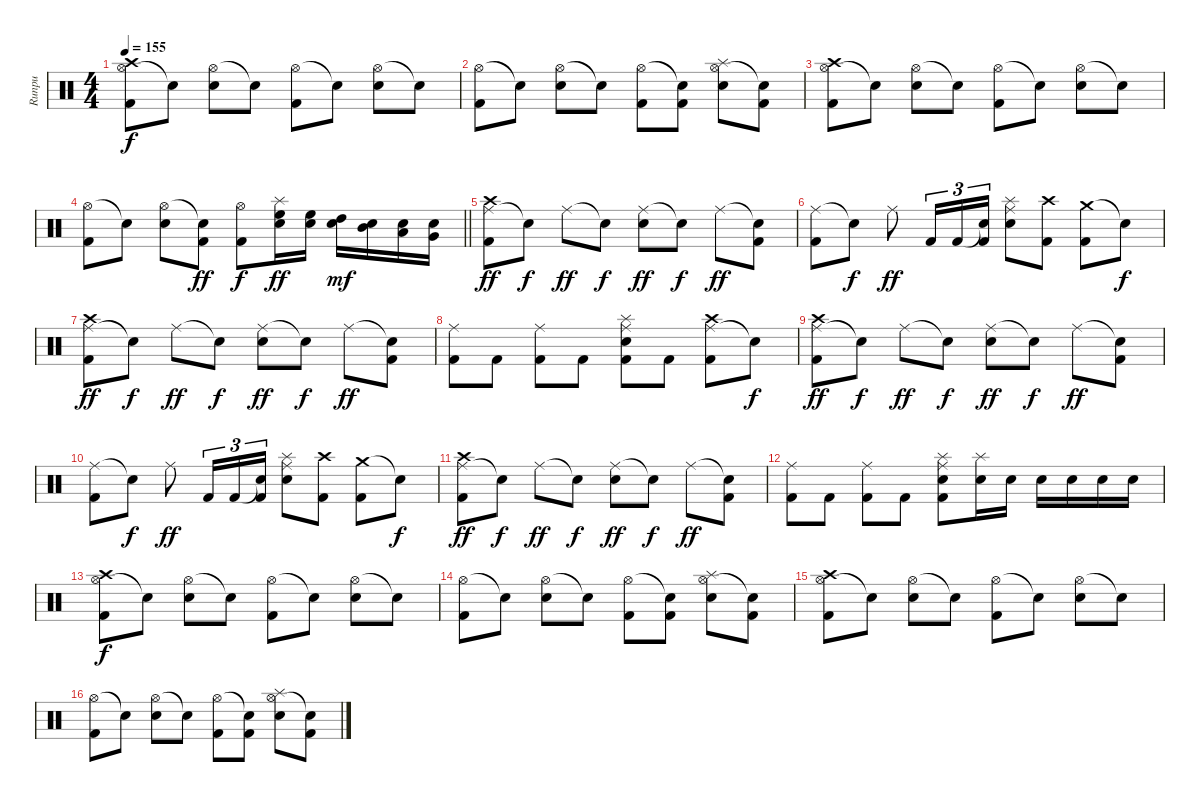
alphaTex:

\track ("Runpu" "Runpu") {instrument percussion}
\staff {score}
\articulation defaults
\ts (4 4)
\tempo 155
\clef neutral
\ks c
("Hi-Hat (open)" "Crash high (hit)" "Kick (hit) 2").8{dy f} "Snare (hit)"{t}.8 ("Hi-Hat (open)" "Snare (hit) 2").8 "Snare (hit)"{t}.8 ("Hi-Hat (open)" "Kick (hit) 2").8 "Snare (hit)"{t}.8 ("Hi-Hat (open)" "Snare (hit) 2").8 "Snare (hit)"{t}.8 |
("Hi-Hat (open)" "Kick (hit) 2").8 "Snare (hit)"{t}.8 ("Hi-Hat (open)" "Snare (hit) 2").8 "Snare (hit)"{t}.8 ("Hi-Hat (open)" "Kick (hit) 2").8 ("Snare (hit)"{t} "Kick (hit) 2").8 ("Hi-Hat (open)" "Splash (hit)" "Snare (hit) 2").8 ("Snare (hit)"{t} "Kick (hit) 2").8 |
("Hi-Hat (open)" "Crash high (hit)" "Kick (hit) 2").8 "Snare (hit)"{t}.8 ("Hi-Hat (open)" "Snare (hit) 2").8 "Snare (hit)"{t}.8 ("Hi-Hat (open)" "Kick (hit) 2").8 "Snare (hit)"{t}.8 ("Hi-Hat (open)" "Snare (hit) 2").8 "Snare (hit)"{t}.8 |
\barLineRight lightlight
("Hi-Hat (open)" "Kick (hit) 2").8 "Snare (hit)"{t}.8 ("Hi-Hat (open)" "Snare (hit) 2").8 ("Snare (hit)"{t} "Kick (hit) 2").8{dy ff} ("Hi-Hat (open)" "Kick (hit) 2").8{dy f} ("Splash (hit)" "High Floor Tom (hit)" "Snare (hit) 2").16{dy ff} ("High Floor Tom (hit)" "Snare (hit) 2").16 ("High Tom (hit)" "Electric Snare (hit)").16{dy mf} ("Mid Tom (hit)" "Electric Snare (hit)").16 ("Low Tom (hit)" "Electric Snare (hit)").16 ("Very Low Tom (hit)" "Electric Snare (hit)").16 |
("Ride (middle)" "Crash high (hit)" "Kick (hit) 2").8{dy ff} "Snare (hit)"{t}.8{dy f} "Ride (middle)".8{dy ff} "Snare (hit)"{t}.8{dy f} ("Ride (middle)" "Snare (hit) 2").8{dy ff} "Snare (hit)"{t}.8{dy f} "Ride (middle)".8{dy ff} ("Snare (hit)"{t} "Kick (hit) 2").8 |
("Ride (middle)" "Kick (hit) 2").8 "Snare (hit)"{t}.8{dy f} "Ride (middle)".8{dy ff} "Kick (hit) 2".16{tu (3 2)} "Kick (hit) 2".16{tu (3 2)} ("Snare (hit)"{t} "Kick (hit) 2").16{tu (3 2)} ("Ride (middle)" "Splash (hit)" "Snare (hit) 2").8 ("Crash high (hit)" "Kick (hit) 2").8 ("Crash medium (hit)" "Kick (hit) 2").8 "Snare (hit)"{t}.8{dy f} |
("Ride (middle)" "Crash high (hit)" "Kick (hit) 2").8{dy ff} "Snare (hit)"{t}.8{dy f} "Ride (middle)".8{dy ff} "Snare (hit)"{t}.8{dy f} ("Ride (middle)" "Snare (hit) 2").8{dy ff} "Snare (hit)"{t}.8{dy f} "Ride (middle)".8{dy ff} ("Snare (hit)"{t} "Kick (hit) 2").8 |
("Ride (middle)" "Kick (hit) 2").8 "Kick (hit) 2".8 ("Ride (middle)" "Kick (hit) 2").8 "Kick (hit) 2".8 ("Ride (middle)" "Splash (hit)" "Snare (hit) 2" "Kick (hit) 2").8 "Kick (hit) 2".8 ("Ride (middle)" "Crash high (hit)" "Kick (hit) 2").8 "Snare (hit)"{t}.8{dy f} |
("Ride (middle)" "Crash high (hit)" "Kick (hit) 2").8{dy ff} "Snare (hit)"{t}.8{dy f} "Ride (middle)".8{dy ff} "Snare (hit)"{t}.8{dy f} ("Ride (middle)" "Snare (hit) 2").8{dy ff} "Snare (hit)"{t}.8{dy f} "Ride (middle)".8{dy ff} ("Snare (hit)"{t} "Kick (hit) 2").8 |
("Ride (middle)" "Kick (hit) 2").8 "Snare (hit)"{t}.8{dy f} "Ride (middle)".8{dy ff} "Kick (hit) 2".16{tu (3 2)} "Kick (hit) 2".16{tu (3 2)} ("Snare (hit)"{t} "Kick (hit) 2").16{tu (3 2)} ("Ride (middle)" "Splash (hit)" "Snare (hit) 2").8 ("Crash high (hit)" "Kick (hit) 2").8 ("Crash medium (hit)" "Kick (hit) 2").8 "Snare (hit)"{t}.8{dy f} |
("Ride (middle)" "Crash high (hit)" "Kick (hit) 2").8{dy ff} "Snare (hit)"{t}.8{dy f} "Ride (middle)".8{dy ff} "Snare (hit)"{t}.8{dy f} ("Ride (middle)" "Snare (hit) 2").8{dy ff} "Snare (hit)"{t}.8{dy f} "Ride (middle)".8{dy ff} ("Snare (hit)"{t} "Kick (hit) 2").8 |
("Ride (middle)" "Kick (hit) 2").8 "Kick (hit) 2".8 ("Ride (middle)" "Kick (hit) 2").8 "Kick (hit) 2".8 ("Ride (middle)" "Splash (hit)" "Snare (hit) 2" "Kick (hit) 2").8 ("Splash (hit)" "Snare (hit) 2").16 "Snare (hit) 2".16 "Snare (hit) 2".16 "Snare (hit) 2".16 "Snare (hit) 2".16 "Snare (hit) 2".16 |
("Hi-Hat (open)" "Crash high (hit)" "Kick (hit) 2").8{dy f} "Snare (hit)"{t}.8 ("Hi-Hat (open)" "Snare (hit) 2").8 "Snare (hit)"{t}.8 ("Hi-Hat (open)" "Kick (hit) 2").8 "Snare (hit)"{t}.8 ("Hi-Hat (open)" "Snare (hit) 2").8 "Snare (hit)"{t}.8 |
("Hi-Hat (open)" "Kick (hit) 2").8 "Snare (hit)"{t}.8 ("Hi-Hat (open)" "Snare (hit) 2").8 "Snare (hit)"{t}.8 ("Hi-Hat (open)" "Kick (hit) 2").8 ("Snare (hit)"{t} "Kick (hit) 2").8 ("Hi-Hat (open)" "Splash (hit)" "Snare (hit) 2").8 ("Snare (hit)"{t} "Kick (hit) 2").8 |
("Hi-Hat (open)" "Crash high (hit)" "Kick (hit) 2").8 "Snare (hit)"{t}.8 ("Hi-Hat (open)" "Snare (hit) 2").8 "Snare (hit)"{t}.8 ("Hi-Hat (open)" "Kick (hit) 2").8 "Snare (hit)"{t}.8 ("Hi-Hat (open)" "Snare (hit) 2").8 "Snare (hit)"{t}.8 |
("Hi-Hat (open)" "Kick (hit) 2").8 "Snare (hit)"{t}.8 ("Hi-Hat (open)" "Snare (hit) 2").8 "Snare (hit)"{t}.8 ("Hi-Hat (open)" "Kick (hit) 2").8 ("Snare (hit)"{t} "Kick (hit) 2").8 ("Hi-Hat (open)" "Splash (hit)" "Snare (hit) 2").8 ("Snare (hit)"{t} "Kick (hit) 2").8
